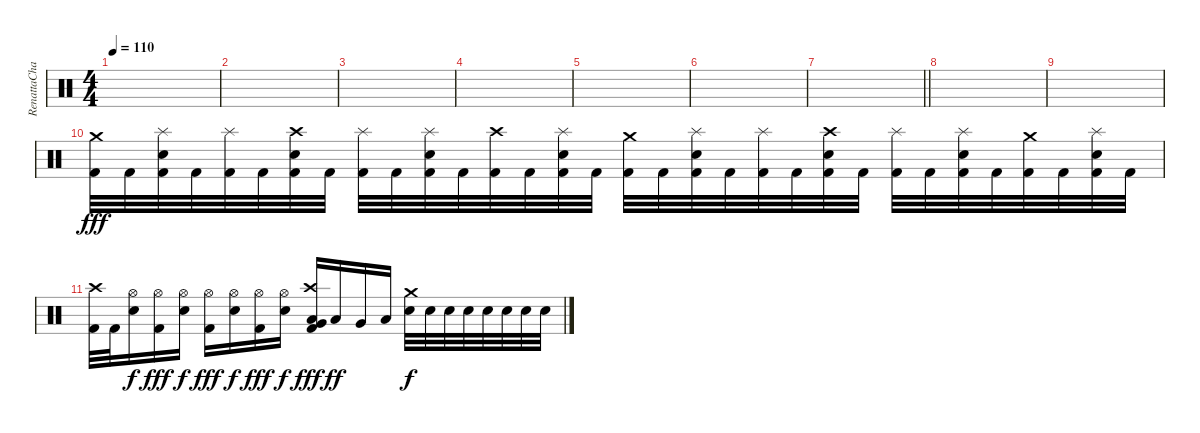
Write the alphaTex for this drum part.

\track ("RenattaCharat" "RenattaCha") {instrument percussion}
\staff {score}
\articulation defaults
\ts (4 4)
\tempo 110
\clef neutral
\ks c
|
|
|
|
|
|
\barLineRight lightlight
|
|
|
("Crash medium (hit)" "Kick (hit) 2").32{dy fff} "Kick (hit) 2".32 ("Splash (hit)" "Snare (hit) 2" "Kick (hit) 2").32 "Kick (hit) 2".32 ("Splash (hit)" "Kick (hit) 2").32 "Kick (hit) 2".32 ("Crash high (hit)" "Snare (hit) 2" "Kick (hit) 2").32 "Kick (hit) 2".32 ("Splash (hit)" "Kick (hit) 2").32 "Kick (hit) 2".32 ("Splash (hit)" "Snare (hit) 2" "Kick (hit) 2").32 "Kick (hit) 2".32 ("Crash high (hit)" "Kick (hit) 2").32 "Kick (hit) 2".32 ("Splash (hit)" "Snare (hit) 2" "Kick (hit) 2").32 "Kick (hit) 2".32 ("Crash medium (hit)" "Kick (hit) 2").32 "Kick (hit) 2".32 ("Splash (hit)" "Snare (hit) 2" "Kick (hit) 2").32 "Kick (hit) 2".32 ("Splash (hit)" "Kick (hit) 2").32 "Kick (hit) 2".32 ("Crash high (hit)" "Snare (hit) 2" "Kick (hit) 2").32 "Kick (hit) 2".32 ("Splash (hit)" "Kick (hit) 2").32 "Kick (hit) 2".32 ("Splash (hit)" "Snare (hit) 2" "Kick (hit) 2").32 "Kick (hit) 2".32 ("Crash medium (hit)" "Kick (hit) 2").32 "Kick (hit) 2".32 ("Splash (hit)" "Snare (hit) 2" "Kick (hit) 2").32 "Kick (hit) 2".32 |
("Crash high (hit)" "Kick (hit) 2").32 "Kick (hit) 2".32 ("Hi-Hat (open)" "Snare (hit) 2").16{dy f} ("Hi-Hat (open)" "Kick (hit) 2").16{dy fff} ("Hi-Hat (open)" "Snare (hit) 2").16{dy f} ("Hi-Hat (open)" "Kick (hit) 2").16{dy fff} ("Hi-Hat (open)" "Snare (hit) 2").16{dy f} ("Hi-Hat (open)" "Kick (hit) 2").16{dy fff} ("Hi-Hat (open)" "Snare (hit) 2").16{dy f} ("Crash high (hit)" "Very Low Tom (hit)" "Low Tom (hit)" "Kick (hit) 2").16{dy fff} "Low Tom (hit)".16{dy ff} "Very Low Tom (hit)".16 "Low Floor Tom (hit)".16 ("Crash medium (hit)" "Snare (hit) 2").32{dy f} "Snare (hit) 2".32 "Snare (hit) 2".32 "Snare (hit) 2".32 "Snare (hit) 2".32 "Snare (hit) 2".32 "Snare (hit) 2".32 "Snare (hit) 2".32
